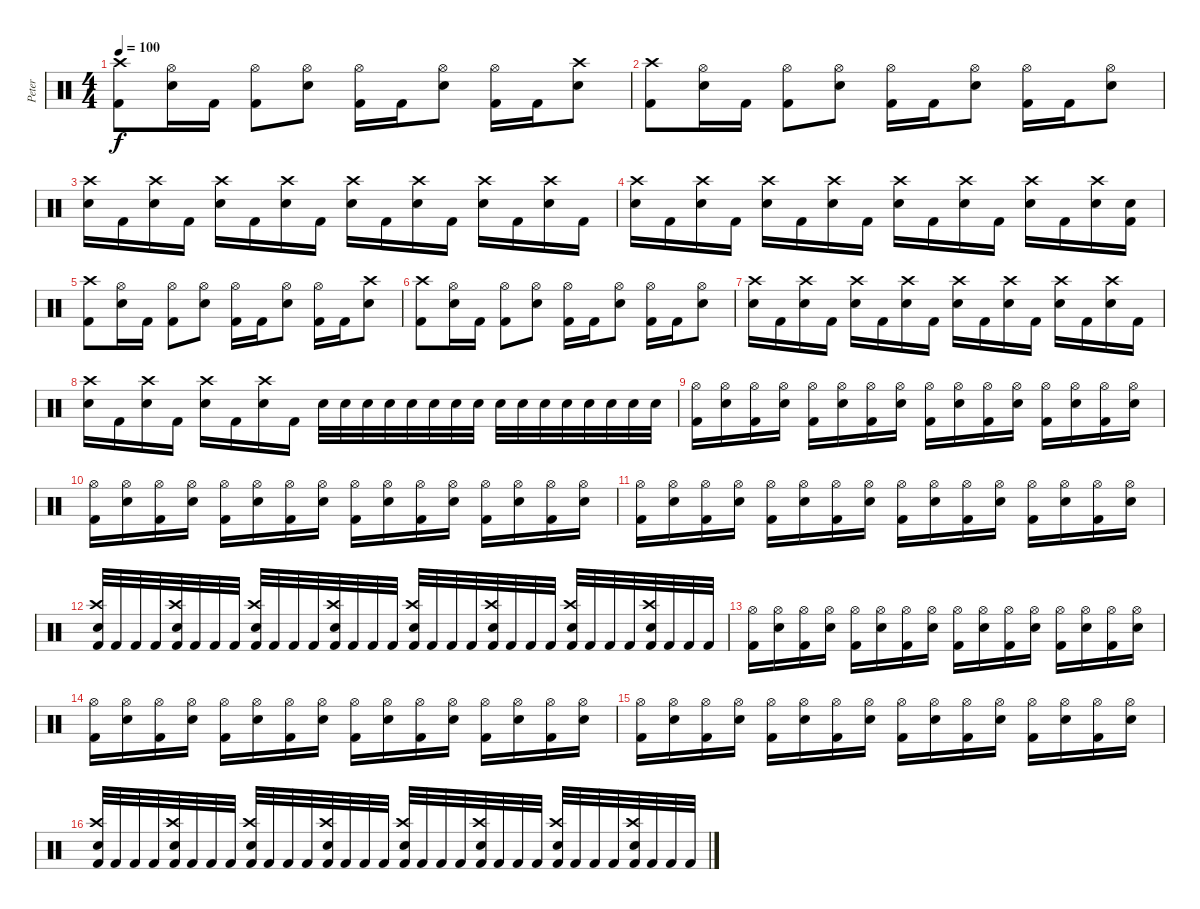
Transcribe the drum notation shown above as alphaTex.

\track ("Peter" "Peter") {instrument percussion}
\staff {score}
\articulation defaults
\ts (4 4)
\tempo 100
\clef neutral
\ks c
("Kick (hit) 2" "Crash high (hit)").8{dy f} ("Electric Snare (hit)" "Hi-Hat (open)").16 "Kick (hit) 2".16 ("Kick (hit) 2" "Hi-Hat (open)").8 ("Electric Snare (hit)" "Hi-Hat (open)").8 ("Kick (hit) 2" "Hi-Hat (open)").16 "Kick (hit) 2".16 ("Electric Snare (hit)" "Hi-Hat (open)").8 ("Kick (hit) 2" "Hi-Hat (open)").16 "Kick (hit) 2".16 ("Electric Snare (hit)" "Crash high (hit)").8 |
("Kick (hit) 2" "Crash high (hit)").8 ("Electric Snare (hit)" "Hi-Hat (open)").16 "Kick (hit) 2".16 ("Kick (hit) 2" "Hi-Hat (open)").8 ("Electric Snare (hit)" "Hi-Hat (open)").8 ("Kick (hit) 2" "Hi-Hat (open)").16 "Kick (hit) 2".16 ("Electric Snare (hit)" "Hi-Hat (open)").8 ("Kick (hit) 2" "Hi-Hat (open)").16 "Kick (hit) 2".16 ("Electric Snare (hit)" "Hi-Hat (open)").8 |
("Electric Snare (hit)" "Crash high (hit)").16 "Kick (hit) 2".16 ("Electric Snare (hit)" "Crash high (hit)").16 "Kick (hit) 2".16 ("Electric Snare (hit)" "Crash high (hit)").16 "Kick (hit) 2".16 ("Electric Snare (hit)" "Crash high (hit)").16 "Kick (hit) 2".16 ("Electric Snare (hit)" "Crash high (hit)").16 "Kick (hit) 2".16 ("Electric Snare (hit)" "Crash high (hit)").16 "Kick (hit) 2".16 ("Electric Snare (hit)" "Crash high (hit)").16 "Kick (hit) 2".16 ("Electric Snare (hit)" "Crash high (hit)").16 "Kick (hit) 2".16 |
("Electric Snare (hit)" "Crash high (hit)").16 "Kick (hit) 2".16 ("Electric Snare (hit)" "Crash high (hit)").16 "Kick (hit) 2".16 ("Electric Snare (hit)" "Crash high (hit)").16 "Kick (hit) 2".16 ("Electric Snare (hit)" "Crash high (hit)").16 "Kick (hit) 2".16 ("Electric Snare (hit)" "Crash high (hit)").16 "Kick (hit) 2".16 ("Electric Snare (hit)" "Crash high (hit)").16 "Kick (hit) 2".16 ("Electric Snare (hit)" "Crash high (hit)").16 "Kick (hit) 2".16 ("Electric Snare (hit)" "Crash high (hit)").16 ("Kick (hit) 2" "Electric Snare (hit)").16 |
("Kick (hit) 2" "Crash high (hit)").8 ("Electric Snare (hit)" "Hi-Hat (open)").16 "Kick (hit) 2".16 ("Kick (hit) 2" "Hi-Hat (open)").8 ("Electric Snare (hit)" "Hi-Hat (open)").8 ("Kick (hit) 2" "Hi-Hat (open)").16 "Kick (hit) 2".16 ("Electric Snare (hit)" "Hi-Hat (open)").8 ("Kick (hit) 2" "Hi-Hat (open)").16 "Kick (hit) 2".16 ("Electric Snare (hit)" "Crash high (hit)").8 |
("Kick (hit) 2" "Crash high (hit)").8 ("Electric Snare (hit)" "Hi-Hat (open)").16 "Kick (hit) 2".16 ("Kick (hit) 2" "Hi-Hat (open)").8 ("Electric Snare (hit)" "Hi-Hat (open)").8 ("Kick (hit) 2" "Hi-Hat (open)").16 "Kick (hit) 2".16 ("Electric Snare (hit)" "Hi-Hat (open)").8 ("Kick (hit) 2" "Hi-Hat (open)").16 "Kick (hit) 2".16 ("Electric Snare (hit)" "Hi-Hat (open)").8 |
("Electric Snare (hit)" "Crash high (hit)").16 "Kick (hit) 2".16 ("Electric Snare (hit)" "Crash high (hit)").16 "Kick (hit) 2".16 ("Electric Snare (hit)" "Crash high (hit)").16 "Kick (hit) 2".16 ("Electric Snare (hit)" "Crash high (hit)").16 "Kick (hit) 2".16 ("Electric Snare (hit)" "Crash high (hit)").16 "Kick (hit) 2".16 ("Electric Snare (hit)" "Crash high (hit)").16 "Kick (hit) 2".16 ("Electric Snare (hit)" "Crash high (hit)").16 "Kick (hit) 2".16 ("Electric Snare (hit)" "Crash high (hit)").16 "Kick (hit) 2".16 |
("Electric Snare (hit)" "Crash high (hit)").16 "Kick (hit) 2".16 ("Electric Snare (hit)" "Crash high (hit)").16 "Kick (hit) 2".16 ("Electric Snare (hit)" "Crash high (hit)").16 "Kick (hit) 2".16 ("Electric Snare (hit)" "Crash high (hit)").16 "Kick (hit) 2".16 "Electric Snare (hit)".32 "Electric Snare (hit)".32 "Electric Snare (hit)".32 "Electric Snare (hit)".32 "Electric Snare (hit)".32 "Electric Snare (hit)".32 "Electric Snare (hit)".32 "Electric Snare (hit)".32 "Electric Snare (hit)".32 "Electric Snare (hit)".32 "Electric Snare (hit)".32 "Electric Snare (hit)".32 "Electric Snare (hit)".32 "Electric Snare (hit)".32 "Electric Snare (hit)".32 "Electric Snare (hit)".32 |
("Hi-Hat (open)" "Kick (hit) 2").16 ("Hi-Hat (open)" "Electric Snare (hit)").16 ("Hi-Hat (open)" "Kick (hit) 2").16 ("Hi-Hat (open)" "Electric Snare (hit)").16 ("Hi-Hat (open)" "Kick (hit) 2").16 ("Hi-Hat (open)" "Electric Snare (hit)").16 ("Hi-Hat (open)" "Kick (hit) 2").16 ("Hi-Hat (open)" "Electric Snare (hit)").16 ("Hi-Hat (open)" "Kick (hit) 2").16 ("Hi-Hat (open)" "Electric Snare (hit)").16 ("Hi-Hat (open)" "Kick (hit) 2").16 ("Hi-Hat (open)" "Electric Snare (hit)").16 ("Hi-Hat (open)" "Kick (hit) 2").16 ("Hi-Hat (open)" "Electric Snare (hit)").16 ("Hi-Hat (open)" "Kick (hit) 2").16 ("Hi-Hat (open)" "Electric Snare (hit)").16 |
("Hi-Hat (open)" "Kick (hit) 2").16 ("Hi-Hat (open)" "Electric Snare (hit)").16 ("Hi-Hat (open)" "Kick (hit) 2").16 ("Hi-Hat (open)" "Electric Snare (hit)").16 ("Hi-Hat (open)" "Kick (hit) 2").16 ("Hi-Hat (open)" "Electric Snare (hit)").16 ("Hi-Hat (open)" "Kick (hit) 2").16 ("Hi-Hat (open)" "Electric Snare (hit)").16 ("Hi-Hat (open)" "Kick (hit) 2").16 ("Hi-Hat (open)" "Electric Snare (hit)").16 ("Hi-Hat (open)" "Kick (hit) 2").16 ("Hi-Hat (open)" "Electric Snare (hit)").16 ("Hi-Hat (open)" "Kick (hit) 2").16 ("Hi-Hat (open)" "Electric Snare (hit)").16 ("Hi-Hat (open)" "Kick (hit) 2").16 ("Hi-Hat (open)" "Electric Snare (hit)").16 |
("Hi-Hat (open)" "Kick (hit) 2").16 ("Hi-Hat (open)" "Electric Snare (hit)").16 ("Hi-Hat (open)" "Kick (hit) 2").16 ("Hi-Hat (open)" "Electric Snare (hit)").16 ("Hi-Hat (open)" "Kick (hit) 2").16 ("Hi-Hat (open)" "Electric Snare (hit)").16 ("Hi-Hat (open)" "Kick (hit) 2").16 ("Hi-Hat (open)" "Electric Snare (hit)").16 ("Hi-Hat (open)" "Kick (hit) 2").16 ("Hi-Hat (open)" "Electric Snare (hit)").16 ("Hi-Hat (open)" "Kick (hit) 2").16 ("Hi-Hat (open)" "Electric Snare (hit)").16 ("Hi-Hat (open)" "Kick (hit) 2").16 ("Hi-Hat (open)" "Electric Snare (hit)").16 ("Hi-Hat (open)" "Kick (hit) 2").16 ("Hi-Hat (open)" "Electric Snare (hit)").16 |
("Crash high (hit)" "Electric Snare (hit)" "Kick (hit) 2").32 "Kick (hit) 2".32 "Kick (hit) 2".32 "Kick (hit) 2".32 ("Crash high (hit)" "Electric Snare (hit)" "Kick (hit) 2").32 "Kick (hit) 2".32 "Kick (hit) 2".32 "Kick (hit) 2".32 ("Crash high (hit)" "Electric Snare (hit)" "Kick (hit) 2").32 "Kick (hit) 2".32 "Kick (hit) 2".32 "Kick (hit) 2".32 ("Crash high (hit)" "Electric Snare (hit)" "Kick (hit) 2").32 "Kick (hit) 2".32 "Kick (hit) 2".32 "Kick (hit) 2".32 ("Crash high (hit)" "Electric Snare (hit)" "Kick (hit) 2").32 "Kick (hit) 2".32 "Kick (hit) 2".32 "Kick (hit) 2".32 ("Crash high (hit)" "Electric Snare (hit)" "Kick (hit) 2").32 "Kick (hit) 2".32 "Kick (hit) 2".32 "Kick (hit) 2".32 ("Crash high (hit)" "Electric Snare (hit)" "Kick (hit) 2").32 "Kick (hit) 2".32 "Kick (hit) 2".32 "Kick (hit) 2".32 ("Crash high (hit)" "Electric Snare (hit)" "Kick (hit) 2").32 "Kick (hit) 2".32 "Kick (hit) 2".32 "Kick (hit) 2".32 |
("Hi-Hat (open)" "Kick (hit) 2").16 ("Hi-Hat (open)" "Electric Snare (hit)").16 ("Hi-Hat (open)" "Kick (hit) 2").16 ("Hi-Hat (open)" "Electric Snare (hit)").16 ("Hi-Hat (open)" "Kick (hit) 2").16 ("Hi-Hat (open)" "Electric Snare (hit)").16 ("Hi-Hat (open)" "Kick (hit) 2").16 ("Hi-Hat (open)" "Electric Snare (hit)").16 ("Hi-Hat (open)" "Kick (hit) 2").16 ("Hi-Hat (open)" "Electric Snare (hit)").16 ("Hi-Hat (open)" "Kick (hit) 2").16 ("Hi-Hat (open)" "Electric Snare (hit)").16 ("Hi-Hat (open)" "Kick (hit) 2").16 ("Hi-Hat (open)" "Electric Snare (hit)").16 ("Hi-Hat (open)" "Kick (hit) 2").16 ("Hi-Hat (open)" "Electric Snare (hit)").16 |
("Hi-Hat (open)" "Kick (hit) 2").16 ("Hi-Hat (open)" "Electric Snare (hit)").16 ("Hi-Hat (open)" "Kick (hit) 2").16 ("Hi-Hat (open)" "Electric Snare (hit)").16 ("Hi-Hat (open)" "Kick (hit) 2").16 ("Hi-Hat (open)" "Electric Snare (hit)").16 ("Hi-Hat (open)" "Kick (hit) 2").16 ("Hi-Hat (open)" "Electric Snare (hit)").16 ("Hi-Hat (open)" "Kick (hit) 2").16 ("Hi-Hat (open)" "Electric Snare (hit)").16 ("Hi-Hat (open)" "Kick (hit) 2").16 ("Hi-Hat (open)" "Electric Snare (hit)").16 ("Hi-Hat (open)" "Kick (hit) 2").16 ("Hi-Hat (open)" "Electric Snare (hit)").16 ("Hi-Hat (open)" "Kick (hit) 2").16 ("Hi-Hat (open)" "Electric Snare (hit)").16 |
("Hi-Hat (open)" "Kick (hit) 2").16 ("Hi-Hat (open)" "Electric Snare (hit)").16 ("Hi-Hat (open)" "Kick (hit) 2").16 ("Hi-Hat (open)" "Electric Snare (hit)").16 ("Hi-Hat (open)" "Kick (hit) 2").16 ("Hi-Hat (open)" "Electric Snare (hit)").16 ("Hi-Hat (open)" "Kick (hit) 2").16 ("Hi-Hat (open)" "Electric Snare (hit)").16 ("Hi-Hat (open)" "Kick (hit) 2").16 ("Hi-Hat (open)" "Electric Snare (hit)").16 ("Hi-Hat (open)" "Kick (hit) 2").16 ("Hi-Hat (open)" "Electric Snare (hit)").16 ("Hi-Hat (open)" "Kick (hit) 2").16 ("Hi-Hat (open)" "Electric Snare (hit)").16 ("Hi-Hat (open)" "Kick (hit) 2").16 ("Hi-Hat (open)" "Electric Snare (hit)").16 |
("Crash high (hit)" "Electric Snare (hit)" "Kick (hit) 2").32 "Kick (hit) 2".32 "Kick (hit) 2".32 "Kick (hit) 2".32 ("Crash high (hit)" "Electric Snare (hit)" "Kick (hit) 2").32 "Kick (hit) 2".32 "Kick (hit) 2".32 "Kick (hit) 2".32 ("Crash high (hit)" "Electric Snare (hit)" "Kick (hit) 2").32 "Kick (hit) 2".32 "Kick (hit) 2".32 "Kick (hit) 2".32 ("Crash high (hit)" "Electric Snare (hit)" "Kick (hit) 2").32 "Kick (hit) 2".32 "Kick (hit) 2".32 "Kick (hit) 2".32 ("Crash high (hit)" "Electric Snare (hit)" "Kick (hit) 2").32 "Kick (hit) 2".32 "Kick (hit) 2".32 "Kick (hit) 2".32 ("Crash high (hit)" "Electric Snare (hit)" "Kick (hit) 2").32 "Kick (hit) 2".32 "Kick (hit) 2".32 "Kick (hit) 2".32 ("Crash high (hit)" "Electric Snare (hit)" "Kick (hit) 2").32 "Kick (hit) 2".32 "Kick (hit) 2".32 "Kick (hit) 2".32 ("Crash high (hit)" "Electric Snare (hit)" "Kick (hit) 2").32 "Kick (hit) 2".32 "Kick (hit) 2".32 "Kick (hit) 2".32
